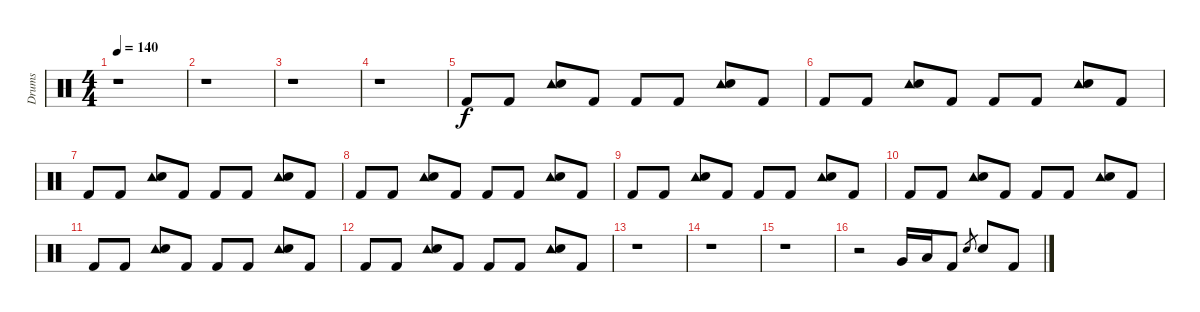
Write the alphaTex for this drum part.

\track ("Drums" "Drums") {instrument percussion}
\staff {score}
\articulation defaults
\ts (4 4)
\tempo 140
\clef neutral
\ks c
r.1{dy f} |
r.1 |
r.1 |
r.1 |
"Kick (hit) 2".8{volume 0} "Kick (hit) 2".8{volume 13} ("Tambourine (hit)" "Electric Snare (hit)").8 "Kick (hit) 2".8 "Kick (hit) 2".8 "Kick (hit) 2".8 ("Tambourine (hit)" "Electric Snare (hit)").8 "Kick (hit) 2".8 |
"Kick (hit) 2".8 "Kick (hit) 2".8 ("Tambourine (hit)" "Electric Snare (hit)").8 "Kick (hit) 2".8 "Kick (hit) 2".8 "Kick (hit) 2".8 ("Tambourine (hit)" "Electric Snare (hit)").8 "Kick (hit) 2".8 |
"Kick (hit) 2".8 "Kick (hit) 2".8 ("Tambourine (hit)" "Electric Snare (hit)").8 "Kick (hit) 2".8 "Kick (hit) 2".8 "Kick (hit) 2".8 ("Tambourine (hit)" "Electric Snare (hit)").8 "Kick (hit) 2".8 |
"Kick (hit) 2".8 "Kick (hit) 2".8 ("Tambourine (hit)" "Electric Snare (hit)").8 "Kick (hit) 2".8 "Kick (hit) 2".8 "Kick (hit) 2".8 ("Tambourine (hit)" "Electric Snare (hit)").8 "Kick (hit) 2".8 |
"Kick (hit) 2".8 "Kick (hit) 2".8 ("Tambourine (hit)" "Electric Snare (hit)").8 "Kick (hit) 2".8 "Kick (hit) 2".8 "Kick (hit) 2".8 ("Tambourine (hit)" "Electric Snare (hit)").8 "Kick (hit) 2".8 |
"Kick (hit) 2".8 "Kick (hit) 2".8 ("Tambourine (hit)" "Electric Snare (hit)").8 "Kick (hit) 2".8 "Kick (hit) 2".8 "Kick (hit) 2".8 ("Tambourine (hit)" "Electric Snare (hit)").8 "Kick (hit) 2".8 |
"Kick (hit) 2".8 "Kick (hit) 2".8 ("Tambourine (hit)" "Electric Snare (hit)").8 "Kick (hit) 2".8 "Kick (hit) 2".8 "Kick (hit) 2".8 ("Tambourine (hit)" "Electric Snare (hit)").8 "Kick (hit) 2".8 |
"Kick (hit) 2".8 "Kick (hit) 2".8 ("Tambourine (hit)" "Electric Snare (hit)").8 "Kick (hit) 2".8 "Kick (hit) 2".8 "Kick (hit) 2".8 ("Tambourine (hit)" "Electric Snare (hit)").8 "Kick (hit) 2".8 |
r.1 |
r.1 |
r.1 |
r.2 "Very Low Tom (hit)".16 "Low Tom (hit)".16 "Kick (hit) 2".8 "Electric Snare (hit)".8{gr} "Electric Snare (hit)".8 "Kick (hit) 2".8
